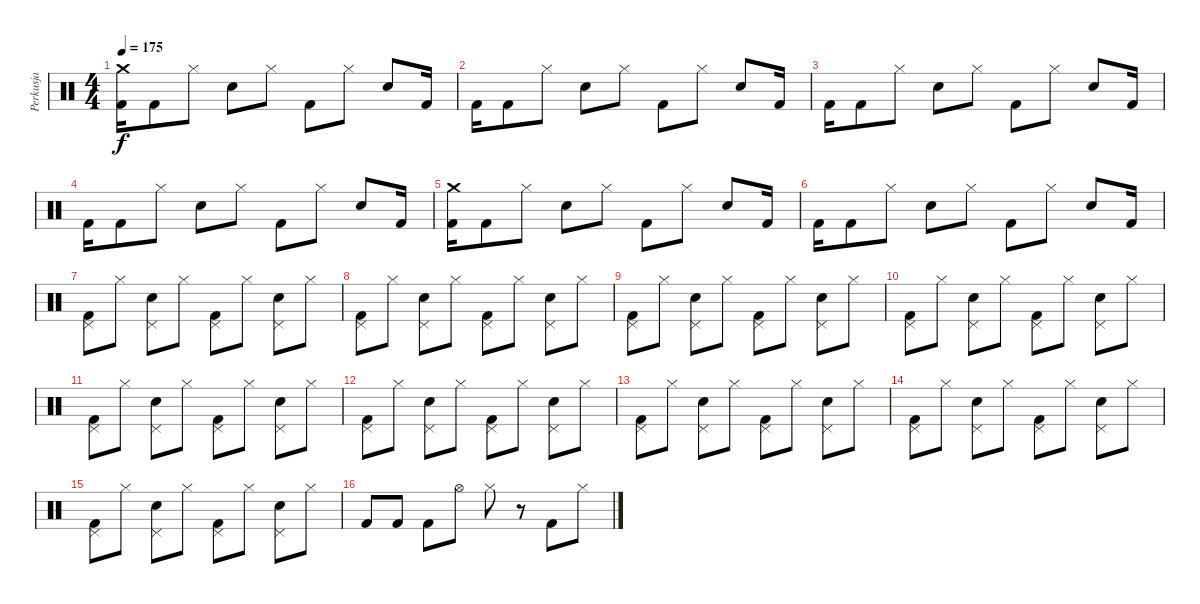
\track ("Perkusja" "Perkusja") {instrument percussion}
\staff {score}
\articulation defaults
\ts (4 4)
\tempo 175
\clef neutral
\ks c
("Kick (hit) 2" "Crash medium (hit)").16{dy f} "Kick (hit) 2".8 "Hi-Hat (closed)".8 "Snare (hit) 2".8 "Hi-Hat (closed)".8 "Kick (hit) 2".8 "Hi-Hat (closed)".8 "Snare (hit) 2".8 "Kick (hit) 2".16 |
"Kick (hit) 2".16 "Kick (hit) 2".8 "Hi-Hat (closed)".8 "Snare (hit) 2".8 "Hi-Hat (closed)".8 "Kick (hit) 2".8 "Hi-Hat (closed)".8 "Snare (hit) 2".8 "Kick (hit) 2".16 |
"Kick (hit) 2".16 "Kick (hit) 2".8 "Hi-Hat (closed)".8 "Snare (hit) 2".8 "Hi-Hat (closed)".8 "Kick (hit) 2".8 "Hi-Hat (closed)".8 "Snare (hit) 2".8 "Kick (hit) 2".16 |
"Kick (hit) 2".16 "Kick (hit) 2".8 "Hi-Hat (closed)".8 "Snare (hit) 2".8 "Hi-Hat (closed)".8 "Kick (hit) 2".8 "Hi-Hat (closed)".8 "Snare (hit) 2".8 "Kick (hit) 2".16 |
("Kick (hit) 2" "Crash medium (hit)").16 "Kick (hit) 2".8 "Hi-Hat (closed)".8 "Snare (hit) 2".8 "Hi-Hat (closed)".8 "Kick (hit) 2".8 "Hi-Hat (closed)".8 "Snare (hit) 2".8 "Kick (hit) 2".16 |
"Kick (hit) 2".16 "Kick (hit) 2".8 "Hi-Hat (closed)".8 "Snare (hit) 2".8 "Hi-Hat (closed)".8 "Kick (hit) 2".8 "Hi-Hat (closed)".8 "Snare (hit) 2".8 "Kick (hit) 2".16 |
("Kick (hit) 2" "Pedal Hi-Hat (hit)").8 "Hi-Hat (closed)".8 ("Snare (hit) 2" "Pedal Hi-Hat (hit)").8 "Hi-Hat (closed)".8 ("Kick (hit) 2" "Pedal Hi-Hat (hit)").8 "Hi-Hat (closed)".8 ("Snare (hit) 2" "Pedal Hi-Hat (hit)").8 "Hi-Hat (closed)".8 |
("Kick (hit) 2" "Pedal Hi-Hat (hit)").8 "Hi-Hat (closed)".8 ("Snare (hit) 2" "Pedal Hi-Hat (hit)").8 "Hi-Hat (closed)".8 ("Kick (hit) 2" "Pedal Hi-Hat (hit)").8 "Hi-Hat (closed)".8 ("Snare (hit) 2" "Pedal Hi-Hat (hit)").8 "Hi-Hat (closed)".8 |
("Kick (hit) 2" "Pedal Hi-Hat (hit)").8 "Hi-Hat (closed)".8 ("Snare (hit) 2" "Pedal Hi-Hat (hit)").8 "Hi-Hat (closed)".8 ("Kick (hit) 2" "Pedal Hi-Hat (hit)").8 "Hi-Hat (closed)".8 ("Snare (hit) 2" "Pedal Hi-Hat (hit)").8 "Hi-Hat (closed)".8 |
("Kick (hit) 2" "Pedal Hi-Hat (hit)").8 "Hi-Hat (closed)".8 ("Snare (hit) 2" "Pedal Hi-Hat (hit)").8 "Hi-Hat (closed)".8 ("Kick (hit) 2" "Pedal Hi-Hat (hit)").8 "Hi-Hat (closed)".8 ("Snare (hit) 2" "Pedal Hi-Hat (hit)").8 "Hi-Hat (closed)".8 |
("Kick (hit) 2" "Pedal Hi-Hat (hit)").8 "Hi-Hat (closed)".8 ("Snare (hit) 2" "Pedal Hi-Hat (hit)").8 "Hi-Hat (closed)".8 ("Kick (hit) 2" "Pedal Hi-Hat (hit)").8 "Hi-Hat (closed)".8 ("Snare (hit) 2" "Pedal Hi-Hat (hit)").8 "Hi-Hat (closed)".8 |
("Kick (hit) 2" "Pedal Hi-Hat (hit)").8 "Hi-Hat (closed)".8 ("Snare (hit) 2" "Pedal Hi-Hat (hit)").8 "Hi-Hat (closed)".8 ("Kick (hit) 2" "Pedal Hi-Hat (hit)").8 "Hi-Hat (closed)".8 ("Snare (hit) 2" "Pedal Hi-Hat (hit)").8 "Hi-Hat (closed)".8 |
("Kick (hit) 2" "Pedal Hi-Hat (hit)").8 "Hi-Hat (closed)".8 ("Snare (hit) 2" "Pedal Hi-Hat (hit)").8 "Hi-Hat (closed)".8 ("Kick (hit) 2" "Pedal Hi-Hat (hit)").8 "Hi-Hat (closed)".8 ("Snare (hit) 2" "Pedal Hi-Hat (hit)").8 "Hi-Hat (closed)".8 |
("Kick (hit) 2" "Pedal Hi-Hat (hit)").8 "Hi-Hat (closed)".8 ("Snare (hit) 2" "Pedal Hi-Hat (hit)").8 "Hi-Hat (closed)".8 ("Kick (hit) 2" "Pedal Hi-Hat (hit)").8 "Hi-Hat (closed)".8 ("Snare (hit) 2" "Pedal Hi-Hat (hit)").8 "Hi-Hat (closed)".8 |
("Kick (hit) 2" "Pedal Hi-Hat (hit)").8 "Hi-Hat (closed)".8 ("Snare (hit) 2" "Pedal Hi-Hat (hit)").8 "Hi-Hat (closed)".8 ("Kick (hit) 2" "Pedal Hi-Hat (hit)").8 "Hi-Hat (closed)".8 ("Snare (hit) 2" "Pedal Hi-Hat (hit)").8 "Hi-Hat (closed)".8 |
"Kick (hit) 2".8 "Kick (hit) 2".8 "Kick (hit) 2".8 "Hi-Hat (open)".8 "Hi-Hat (closed)".8 r.8 "Kick (hit) 2".8 "Hi-Hat (closed)".8
